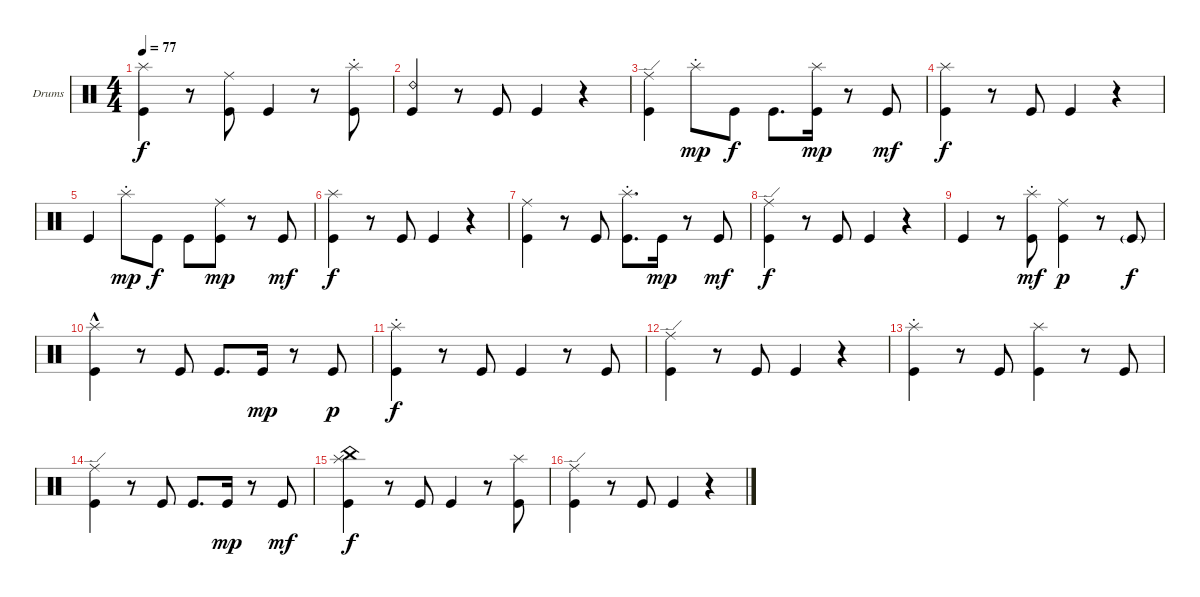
\bracketExtendMode groupsimilarinstruments
\firstSystemTrackNameOrientation horizontal
\otherSystemsTrackNameOrientation horizontal
\track ("Ударники Григорий Гурьянов" "Drums") {instrument percussion}
\staff {score}
\articulation defaults
\ts (4 4)
\tempo 77
\clef neutral
\ks c
("Kick (hit)" "Splash (hit)").4{dy f} r.8 ("Kick (hit)" "Ride (middle)").8 "Kick (hit)".4 r.8 ("Kick (hit)" "Splash (hit)"{st}).8 |
("Kick (hit)" "Ride (bell) 2").4 r.8 "Kick (hit)".8 "Kick (hit)".4 r.4 |
("Kick (hit)" "Ride (edge)").4 "Splash (hit)"{st}.8{dy mp} "Kick (hit)".8{dy f} "Kick (hit)".8{d} ("Kick (hit)" "Splash (hit)").16{dy mp} r.8 "Kick (hit)".8{dy mf} |
("Kick (hit)" "Splash (hit)").4{dy f} r.8 "Kick (hit)".8 "Kick (hit)".4 r.4 |
"Kick (hit)".4 "Splash (hit)"{st}.8{dy mp} "Kick (hit)".8{dy f} "Kick (hit)".8 ("Kick (hit)" "Ride (middle)").8{dy mp} r.8 "Kick (hit)".8{dy mf} |
("Kick (hit)" "Splash (hit)").4{dy f} r.8 "Kick (hit)".8 "Kick (hit)".4 r.4 |
("Kick (hit)" "Ride (middle)").4 r.8 "Kick (hit)".8 ("Kick (hit)" "Splash (hit)"{st}).8{d} "Kick (hit)".16{dy mp} r.8 "Kick (hit)".8{dy mf} |
("Kick (hit)" "Ride (edge)").4{dy f} r.8 "Kick (hit)".8 "Kick (hit)".4 r.4 |
"Kick (hit)".4 r.8 ("Kick (hit)" "Splash (hit)"{st}).8{dy mf} ("Kick (hit)" "Ride (middle)").4{dy p} r.8 "Kick (hit)"{g}.8{dy f} |
("Kick (hit)" "Splash (hit)"{hac}).4 r.8 "Kick (hit)".8 "Kick (hit)".8{d} "Kick (hit)".16{dy mp} r.8 "Kick (hit)".8{dy p} |
("Kick (hit)" "Splash (hit)"{st}).4{dy f} r.8 "Kick (hit)".8 "Kick (hit)".4 r.8 "Kick (hit)".8 |
("Kick (hit)" "Ride (edge)").4 r.8 "Kick (hit)".8 "Kick (hit)".4 r.4 |
("Kick (hit)" "Splash (hit)"{st}).4 r.8 "Kick (hit)".8 ("Kick (hit)" "Splash (hit)").4 r.8 "Kick (hit)".8 |
("Kick (hit)" "Ride (edge)").4 r.8 "Kick (hit)".8 "Kick (hit)".8{d} "Kick (hit)".16{dy mp} r.8 "Kick (hit)".8{dy mf} |
("Kick (hit)" "Splash (hit)" "China (hit)").4{dy f} r.8 "Kick (hit)".8 "Kick (hit)".4 r.8 ("Kick (hit)" "Splash (hit)").8 |
("Kick (hit)" "Ride (edge)").4 r.8 "Kick (hit)".8 "Kick (hit)".4 r.4
